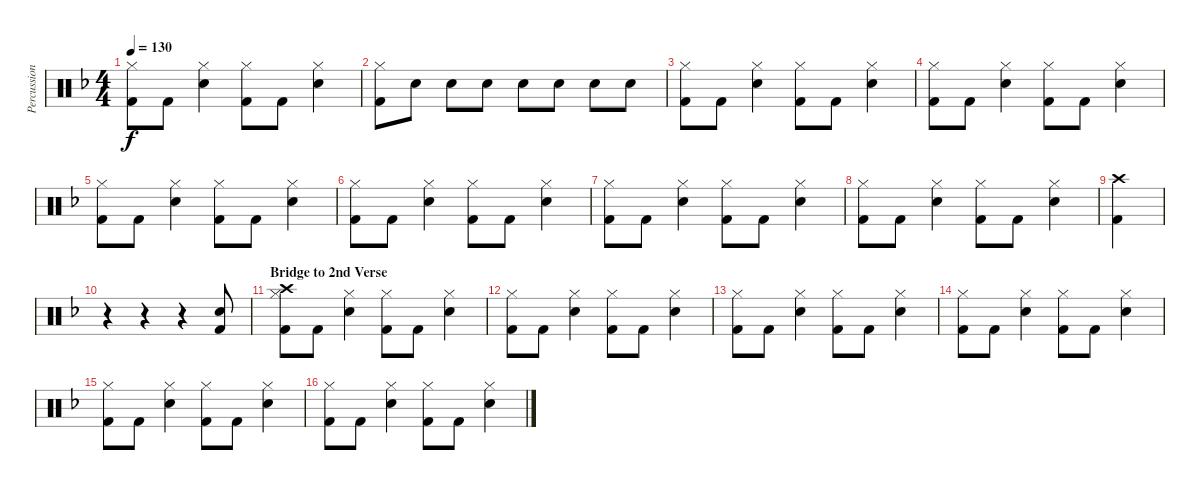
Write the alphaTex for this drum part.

\track ("Percussion" "Percussion") {instrument percussion}
\staff {score}
\articulation defaults
\ts (4 4)
\tempo 130
\clef neutral
\ks dminor
("Hi-Hat (closed)" "Kick (hit) 2").8{dy f} "Kick (hit) 2".8 ("Hi-Hat (closed)" "Snare (hit) 2").4 ("Hi-Hat (closed)" "Kick (hit) 2").8 "Kick (hit) 2".8 ("Hi-Hat (closed)" "Snare (hit) 2").4 |
("Hi-Hat (closed)" "Kick (hit) 2").8 "Snare (hit) 2".8 "Snare (hit) 2".8 "Snare (hit) 2".8 "Snare (hit) 2".8 "Snare (hit) 2".8 "Snare (hit) 2".8 "Snare (hit) 2".8 |
("Hi-Hat (closed)" "Kick (hit) 2").8 "Kick (hit) 2".8 ("Hi-Hat (closed)" "Snare (hit) 2").4 ("Hi-Hat (closed)" "Kick (hit) 2").8 "Kick (hit) 2".8 ("Hi-Hat (closed)" "Snare (hit) 2").4 |
("Hi-Hat (closed)" "Kick (hit) 2").8 "Kick (hit) 2".8 ("Hi-Hat (closed)" "Snare (hit) 2").4 ("Hi-Hat (closed)" "Kick (hit) 2").8 "Kick (hit) 2".8 ("Hi-Hat (closed)" "Snare (hit) 2").4 |
("Hi-Hat (closed)" "Kick (hit) 2").8 "Kick (hit) 2".8 ("Hi-Hat (closed)" "Snare (hit) 2").4 ("Hi-Hat (closed)" "Kick (hit) 2").8 "Kick (hit) 2".8 ("Hi-Hat (closed)" "Snare (hit) 2").4 |
("Hi-Hat (closed)" "Kick (hit) 2").8 "Kick (hit) 2".8 ("Hi-Hat (closed)" "Snare (hit) 2").4 ("Hi-Hat (closed)" "Kick (hit) 2").8 "Kick (hit) 2".8 ("Hi-Hat (closed)" "Snare (hit) 2").4 |
("Hi-Hat (closed)" "Kick (hit) 2").8 "Kick (hit) 2".8 ("Hi-Hat (closed)" "Snare (hit) 2").4 ("Hi-Hat (closed)" "Kick (hit) 2").8 "Kick (hit) 2".8 ("Hi-Hat (closed)" "Snare (hit) 2").4 |
("Hi-Hat (closed)" "Kick (hit) 2").8 "Kick (hit) 2".8 ("Hi-Hat (closed)" "Snare (hit) 2").4 ("Hi-Hat (closed)" "Kick (hit) 2").8 "Kick (hit) 2".8 ("Hi-Hat (closed)" "Snare (hit) 2").4 |
("Crash high (hit)" "Kick (hit) 2").4 |
r.4 r.4 r.4 ("Snare (hit) 2" "Kick (hit) 2").8 |
\section ("" "Bridge to 2nd Verse")
("Crash high (hit)" "Hi-Hat (closed)" "Kick (hit) 2").8 "Kick (hit) 2".8 ("Hi-Hat (closed)" "Snare (hit) 2").4 ("Hi-Hat (closed)" "Kick (hit) 2").8 "Kick (hit) 2".8 ("Hi-Hat (closed)" "Snare (hit) 2").4 |
("Hi-Hat (closed)" "Kick (hit) 2").8 "Kick (hit) 2".8 ("Hi-Hat (closed)" "Snare (hit) 2").4 ("Hi-Hat (closed)" "Kick (hit) 2").8 "Kick (hit) 2".8 ("Hi-Hat (closed)" "Snare (hit) 2").4 |
("Hi-Hat (closed)" "Kick (hit) 2").8 "Kick (hit) 2".8 ("Hi-Hat (closed)" "Snare (hit) 2").4 ("Hi-Hat (closed)" "Kick (hit) 2").8 "Kick (hit) 2".8 ("Hi-Hat (closed)" "Snare (hit) 2").4 |
("Hi-Hat (closed)" "Kick (hit) 2").8 "Kick (hit) 2".8 ("Hi-Hat (closed)" "Snare (hit) 2").4 ("Hi-Hat (closed)" "Kick (hit) 2").8 "Kick (hit) 2".8 ("Hi-Hat (closed)" "Snare (hit) 2").4 |
("Hi-Hat (closed)" "Kick (hit) 2").8 "Kick (hit) 2".8 ("Hi-Hat (closed)" "Snare (hit) 2").4 ("Hi-Hat (closed)" "Kick (hit) 2").8 "Kick (hit) 2".8 ("Hi-Hat (closed)" "Snare (hit) 2").4 |
("Hi-Hat (closed)" "Kick (hit) 2").8 "Kick (hit) 2".8 ("Hi-Hat (closed)" "Snare (hit) 2").4 ("Hi-Hat (closed)" "Kick (hit) 2").8 "Kick (hit) 2".8 ("Hi-Hat (closed)" "Snare (hit) 2").4
